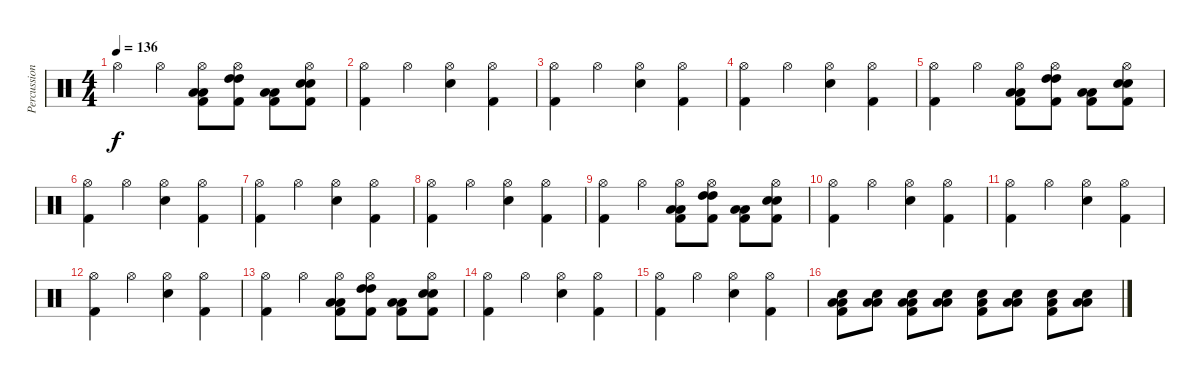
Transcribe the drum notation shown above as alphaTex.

\track ("Percussioni" "Percussion") {instrument percussion}
\staff {score}
\articulation defaults
\ts (4 4)
\tempo 136
\clef neutral
\ks c "Hi-Hat (open)".4{dy f} "Hi-Hat (open)".4
("Low Floor Tom (hit)" "Low Floor Tom (hit)" "Hi-Hat (open)" "Kick (hit) 2").8 ("High Tom (hit)" "High Tom (hit)" "Hi-Hat (open)" "Kick (hit) 2").8 ("Low Tom (hit)" "Low Tom (hit)" "Kick (hit) 2").8 ("Snare (hit) 2" "Snare (hit) 2" "Hi-Hat (open)" "Kick (hit) 2").8 |
("Hi-Hat (open)" "Kick (hit) 2").4 "Hi-Hat (open)".4 ("Hi-Hat (open)" "Snare (hit) 2").4 ("Hi-Hat (open)" "Kick (hit) 2").4 |
("Hi-Hat (open)" "Kick (hit) 2").4 "Hi-Hat (open)".4 ("Hi-Hat (open)" "Snare (hit) 2").4 ("Hi-Hat (open)" "Kick (hit) 2").4 |
("Hi-Hat (open)" "Kick (hit) 2").4 "Hi-Hat (open)".4 ("Hi-Hat (open)" "Snare (hit) 2").4 ("Hi-Hat (open)" "Kick (hit) 2").4 |
("Kick (hit) 2" "Hi-Hat (open)").4 "Hi-Hat (open)".4 ("Low Floor Tom (hit)" "Low Floor Tom (hit)" "Hi-Hat (open)" "Kick (hit) 2").8 ("High Tom (hit)" "High Tom (hit)" "Hi-Hat (open)" "Kick (hit) 2").8 ("Low Tom (hit)" "Low Tom (hit)" "Kick (hit) 2").8 ("Snare (hit) 2" "Snare (hit) 2" "Hi-Hat (open)" "Kick (hit) 2").8 |
("Hi-Hat (open)" "Kick (hit) 2").4 "Hi-Hat (open)".4 ("Hi-Hat (open)" "Snare (hit) 2").4 ("Hi-Hat (open)" "Kick (hit) 2").4 |
("Hi-Hat (open)" "Kick (hit) 2").4 "Hi-Hat (open)".4 ("Hi-Hat (open)" "Snare (hit) 2").4 ("Hi-Hat (open)" "Kick (hit) 2").4 |
("Hi-Hat (open)" "Kick (hit) 2").4 "Hi-Hat (open)".4 ("Hi-Hat (open)" "Snare (hit) 2").4 ("Hi-Hat (open)" "Kick (hit) 2").4 |
("Kick (hit) 2" "Hi-Hat (open)").4 "Hi-Hat (open)".4 ("Low Floor Tom (hit)" "Low Floor Tom (hit)" "Hi-Hat (open)" "Kick (hit) 2").8 ("High Tom (hit)" "High Tom (hit)" "Hi-Hat (open)" "Kick (hit) 2").8 ("Low Tom (hit)" "Low Tom (hit)" "Kick (hit) 2").8 ("Snare (hit) 2" "Snare (hit) 2" "Hi-Hat (open)" "Kick (hit) 2").8 |
("Hi-Hat (open)" "Kick (hit) 2").4 "Hi-Hat (open)".4 ("Hi-Hat (open)" "Snare (hit) 2").4 ("Hi-Hat (open)" "Kick (hit) 2").4 |
("Hi-Hat (open)" "Kick (hit) 2").4 "Hi-Hat (open)".4 ("Hi-Hat (open)" "Snare (hit) 2").4 ("Hi-Hat (open)" "Kick (hit) 2").4 |
("Hi-Hat (open)" "Kick (hit) 2").4 "Hi-Hat (open)".4 ("Hi-Hat (open)" "Snare (hit) 2").4 ("Hi-Hat (open)" "Kick (hit) 2").4 |
("Kick (hit) 2" "Hi-Hat (open)").4 "Hi-Hat (open)".4 ("Low Floor Tom (hit)" "Low Floor Tom (hit)" "Hi-Hat (open)" "Kick (hit) 2").8 ("High Tom (hit)" "High Tom (hit)" "Hi-Hat (open)" "Kick (hit) 2").8 ("Low Tom (hit)" "Low Tom (hit)" "Kick (hit) 2").8 ("Snare (hit) 2" "Snare (hit) 2" "Hi-Hat (open)" "Kick (hit) 2").8 |
("Hi-Hat (open)" "Kick (hit) 2").4 "Hi-Hat (open)".4 ("Hi-Hat (open)" "Snare (hit) 2").4 ("Hi-Hat (open)" "Kick (hit) 2").4 |
("Hi-Hat (open)" "Kick (hit) 2").4 "Hi-Hat (open)".4 ("Hi-Hat (open)" "Snare (hit) 2").4 ("Hi-Hat (open)" "Kick (hit) 2").4 |
("Low Floor Tom (hit)" "Low Floor Tom (hit)" "Snare (hit) 2" "Kick (hit) 2").8 ("Low Floor Tom (hit)" "Snare (hit) 2" "Low Floor Tom (hit)").8 ("Low Floor Tom (hit)" "Low Floor Tom (hit)" "Snare (hit) 2" "Kick (hit) 2").8 ("Low Floor Tom (hit)" "Snare (hit) 2" "Low Floor Tom (hit)").8 ("Low Floor Tom (hit)" "Snare (hit) 2" "Kick (hit) 2").8 ("Low Floor Tom (hit)" "Snare (hit) 2" "Low Floor Tom (hit)").8 ("Low Floor Tom (hit)" "Snare (hit) 2" "Kick (hit) 2").8 ("Low Floor Tom (hit)" "Snare (hit) 2" "Low Floor Tom (hit)").8
